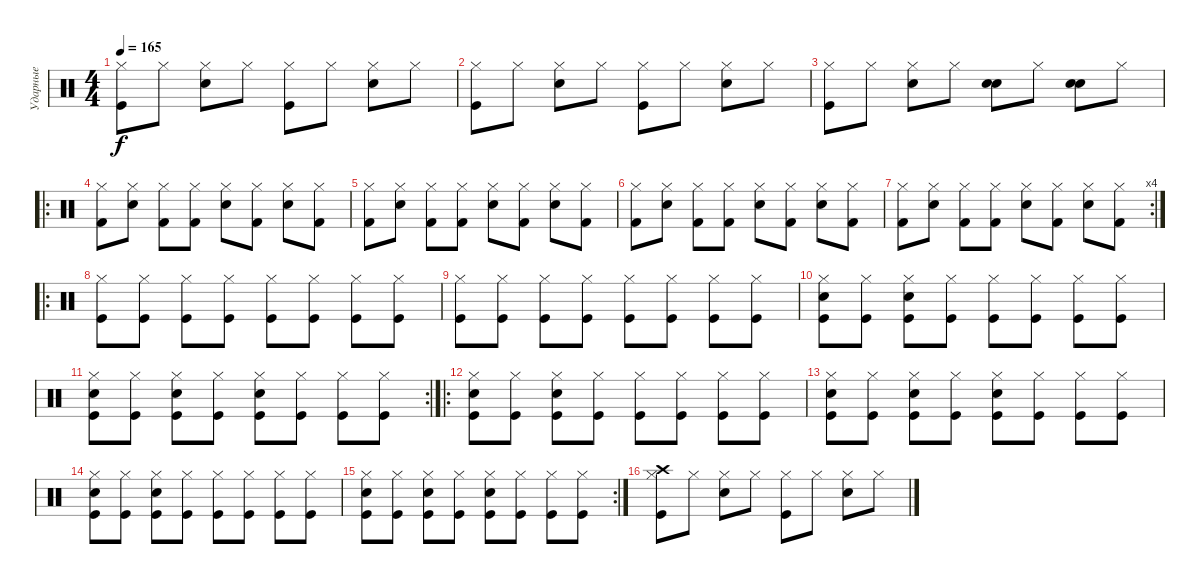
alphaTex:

\track ("Ударные" "Ударные") {instrument percussion}
\staff {score}
\articulation defaults
\ts (4 4)
\tempo 165
\clef neutral
\ks c
("Kick (hit)" "Hi-Hat (closed)").8{dy f} "Hi-Hat (closed)".8 ("Snare (hit) 2" "Hi-Hat (closed)").8 "Hi-Hat (closed)".8 ("Kick (hit)" "Hi-Hat (closed)").8 "Hi-Hat (closed)".8 ("Snare (hit) 2" "Hi-Hat (closed)").8 "Hi-Hat (closed)".8 |
("Kick (hit)" "Hi-Hat (closed)").8 "Hi-Hat (closed)".8 ("Snare (hit) 2" "Hi-Hat (closed)").8 "Hi-Hat (closed)".8 ("Kick (hit)" "Hi-Hat (closed)").8 "Hi-Hat (closed)".8 ("Snare (hit) 2" "Hi-Hat (closed)").8 "Hi-Hat (closed)".8 |
("Kick (hit)" "Hi-Hat (closed)").8 "Hi-Hat (closed)".8 ("Snare (hit) 2" "Hi-Hat (closed)").8 "Hi-Hat (closed)".8 ("Snare (hit) 2" "Electric Snare (hit)").8 "Hi-Hat (closed)".8 ("Snare (hit) 2" "Electric Snare (hit)").8 "Hi-Hat (closed)".8 |
\ro
("Hi-Hat (closed)" "Kick (hit) 2").8 ("Hi-Hat (closed)" "Electric Snare (hit)").8 ("Hi-Hat (closed)" "Kick (hit) 2").8 ("Kick (hit) 2" "Hi-Hat (closed)").8 ("Electric Snare (hit)" "Hi-Hat (closed)").8 ("Hi-Hat (closed)" "Kick (hit) 2").8 ("Hi-Hat (closed)" "Electric Snare (hit)").8 ("Hi-Hat (closed)" "Kick (hit) 2").8 |
("Hi-Hat (closed)" "Kick (hit) 2").8 ("Hi-Hat (closed)" "Electric Snare (hit)").8 ("Hi-Hat (closed)" "Kick (hit) 2").8 ("Kick (hit) 2" "Hi-Hat (closed)").8 ("Electric Snare (hit)" "Hi-Hat (closed)").8 ("Hi-Hat (closed)" "Kick (hit) 2").8 ("Hi-Hat (closed)" "Electric Snare (hit)").8 ("Hi-Hat (closed)" "Kick (hit) 2").8 |
("Hi-Hat (closed)" "Kick (hit) 2").8 ("Hi-Hat (closed)" "Electric Snare (hit)").8 ("Hi-Hat (closed)" "Kick (hit) 2").8 ("Kick (hit) 2" "Hi-Hat (closed)").8 ("Electric Snare (hit)" "Hi-Hat (closed)").8 ("Hi-Hat (closed)" "Kick (hit) 2").8 ("Hi-Hat (closed)" "Electric Snare (hit)").8 ("Hi-Hat (closed)" "Kick (hit) 2").8 |
\rc 4
("Hi-Hat (closed)" "Kick (hit) 2").8 ("Hi-Hat (closed)" "Electric Snare (hit)").8 ("Hi-Hat (closed)" "Kick (hit) 2").8 ("Kick (hit) 2" "Hi-Hat (closed)").8 ("Electric Snare (hit)" "Hi-Hat (closed)").8 ("Hi-Hat (closed)" "Kick (hit) 2").8 ("Hi-Hat (closed)" "Electric Snare (hit)").8 ("Hi-Hat (closed)" "Kick (hit) 2").8 |
\ro
("Kick (hit)" "Hi-Hat (closed)").8 ("Kick (hit)" "Hi-Hat (closed)").8 ("Kick (hit)" "Hi-Hat (closed)").8 ("Kick (hit)" "Hi-Hat (closed)").8 ("Kick (hit)" "Hi-Hat (closed)").8 ("Kick (hit)" "Hi-Hat (closed)").8 ("Kick (hit)" "Hi-Hat (closed)").8 ("Kick (hit)" "Hi-Hat (closed)").8 |
("Kick (hit)" "Hi-Hat (closed)").8 ("Kick (hit)" "Hi-Hat (closed)").8 ("Kick (hit)" "Hi-Hat (closed)").8 ("Kick (hit)" "Hi-Hat (closed)").8 ("Kick (hit)" "Hi-Hat (closed)").8 ("Kick (hit)" "Hi-Hat (closed)").8 ("Kick (hit)" "Hi-Hat (closed)").8 ("Kick (hit)" "Hi-Hat (closed)").8 |
("Kick (hit)" "Snare (hit) 2" "Hi-Hat (closed)").8 ("Kick (hit)" "Hi-Hat (closed)").8 ("Kick (hit)" "Snare (hit) 2" "Hi-Hat (closed)").8 ("Kick (hit)" "Hi-Hat (closed)").8 ("Kick (hit)" "Hi-Hat (closed)").8 ("Kick (hit)" "Hi-Hat (closed)").8 ("Kick (hit)" "Hi-Hat (closed)").8 ("Kick (hit)" "Hi-Hat (closed)").8 |
\rc 2
("Kick (hit)" "Snare (hit) 2" "Hi-Hat (closed)").8 ("Kick (hit)" "Hi-Hat (closed)").8 ("Kick (hit)" "Snare (hit) 2" "Hi-Hat (closed)").8 ("Kick (hit)" "Hi-Hat (closed)").8 ("Kick (hit)" "Snare (hit) 2" "Hi-Hat (closed)").8 ("Kick (hit)" "Hi-Hat (closed)").8 ("Kick (hit)" "Hi-Hat (closed)").8 ("Kick (hit)" "Hi-Hat (closed)").8 |
\ro
("Kick (hit)" "Snare (hit) 2" "Hi-Hat (closed)").8 ("Kick (hit)" "Hi-Hat (closed)").8 ("Kick (hit)" "Snare (hit) 2" "Hi-Hat (closed)").8 ("Kick (hit)" "Hi-Hat (closed)").8 ("Kick (hit)" "Hi-Hat (closed)").8 ("Kick (hit)" "Hi-Hat (closed)").8 ("Kick (hit)" "Hi-Hat (closed)").8 ("Kick (hit)" "Hi-Hat (closed)").8 |
("Kick (hit)" "Snare (hit) 2" "Hi-Hat (closed)").8 ("Kick (hit)" "Hi-Hat (closed)").8 ("Kick (hit)" "Snare (hit) 2" "Hi-Hat (closed)").8 ("Kick (hit)" "Hi-Hat (closed)").8 ("Kick (hit)" "Snare (hit) 2" "Hi-Hat (closed)").8 ("Kick (hit)" "Hi-Hat (closed)").8 ("Kick (hit)" "Hi-Hat (closed)").8 ("Kick (hit)" "Hi-Hat (closed)").8 |
("Kick (hit)" "Snare (hit) 2" "Hi-Hat (closed)").8 ("Kick (hit)" "Hi-Hat (closed)").8 ("Kick (hit)" "Snare (hit) 2" "Hi-Hat (closed)").8 ("Kick (hit)" "Hi-Hat (closed)").8 ("Kick (hit)" "Hi-Hat (closed)").8 ("Kick (hit)" "Hi-Hat (closed)").8 ("Kick (hit)" "Hi-Hat (closed)").8 ("Kick (hit)" "Hi-Hat (closed)").8 |
\rc 2
("Kick (hit)" "Snare (hit) 2" "Hi-Hat (closed)").8 ("Kick (hit)" "Hi-Hat (closed)").8 ("Kick (hit)" "Snare (hit) 2" "Hi-Hat (closed)").8 ("Kick (hit)" "Hi-Hat (closed)").8 ("Kick (hit)" "Snare (hit) 2" "Hi-Hat (closed)").8 ("Kick (hit)" "Hi-Hat (closed)").8 ("Kick (hit)" "Hi-Hat (closed)").8 ("Kick (hit)" "Hi-Hat (closed)").8 |
("Kick (hit)" "Hi-Hat (closed)" "Crash high (hit)").8 "Hi-Hat (closed)".8 ("Snare (hit) 2" "Hi-Hat (closed)").8 "Hi-Hat (closed)".8 ("Kick (hit)" "Hi-Hat (closed)").8 "Hi-Hat (closed)".8 ("Snare (hit) 2" "Hi-Hat (closed)").8 "Hi-Hat (closed)".8
